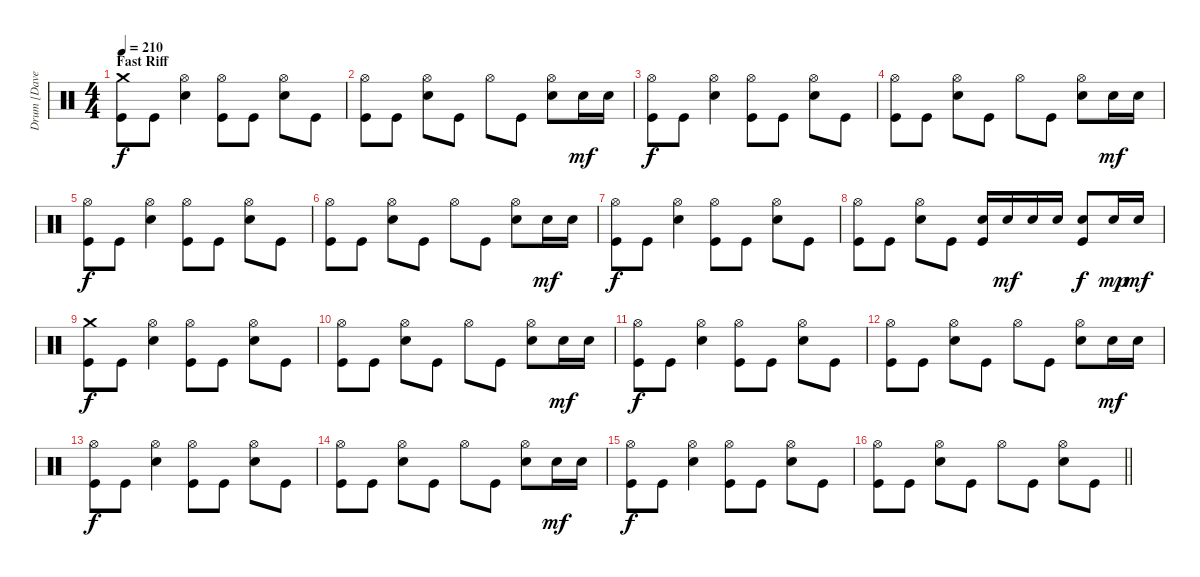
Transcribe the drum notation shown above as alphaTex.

\track ("Drum [Dave Grohl]" "Drum [Dave") {instrument percussion bank 84}
\staff {score}
\articulation defaults
\ts (4 4)
\section ("" "Fast Riff")
\tempo 210
\clef neutral
\ks c
("Crash medium (hit)" "Kick (hit)").8{dy f} "Kick (hit)".8 ("Hi-Hat (open)" "Electric Snare (hit)").4 ("Hi-Hat (open)" "Kick (hit)").8 "Kick (hit)".8 ("Hi-Hat (open)" "Electric Snare (hit)").8 "Kick (hit)".8 |
("Hi-Hat (open)" "Kick (hit)").8 "Kick (hit)".8 ("Hi-Hat (open)" "Electric Snare (hit)").8 "Kick (hit)".8 "Hi-Hat (open)".8 "Kick (hit)".8 ("Hi-Hat (open)" "Electric Snare (hit)").8 "Electric Snare (hit)".16{dy mf} "Electric Snare (hit)".16 |
("Hi-Hat (open)" "Kick (hit)").8{dy f} "Kick (hit)".8 ("Hi-Hat (open)" "Electric Snare (hit)").4 ("Hi-Hat (open)" "Kick (hit)").8 "Kick (hit)".8 ("Hi-Hat (open)" "Electric Snare (hit)").8 "Kick (hit)".8 |
("Hi-Hat (open)" "Kick (hit)").8 "Kick (hit)".8 ("Hi-Hat (open)" "Electric Snare (hit)").8 "Kick (hit)".8 "Hi-Hat (open)".8 "Kick (hit)".8 ("Hi-Hat (open)" "Electric Snare (hit)").8 "Electric Snare (hit)".16{dy mf} "Electric Snare (hit)".16 |
("Hi-Hat (open)" "Kick (hit)").8{dy f} "Kick (hit)".8 ("Hi-Hat (open)" "Electric Snare (hit)").4 ("Hi-Hat (open)" "Kick (hit)").8 "Kick (hit)".8 ("Hi-Hat (open)" "Electric Snare (hit)").8 "Kick (hit)".8 |
("Hi-Hat (open)" "Kick (hit)").8 "Kick (hit)".8 ("Hi-Hat (open)" "Electric Snare (hit)").8 "Kick (hit)".8 "Hi-Hat (open)".8 "Kick (hit)".8 ("Hi-Hat (open)" "Electric Snare (hit)").8 "Electric Snare (hit)".16{dy mf} "Electric Snare (hit)".16 |
("Hi-Hat (open)" "Kick (hit)").8{dy f} "Kick (hit)".8 ("Hi-Hat (open)" "Electric Snare (hit)").4 ("Hi-Hat (open)" "Kick (hit)").8 "Kick (hit)".8 ("Hi-Hat (open)" "Electric Snare (hit)").8 "Kick (hit)".8 |
("Hi-Hat (open)" "Kick (hit)").8 "Kick (hit)".8 ("Hi-Hat (open)" "Electric Snare (hit)").8 "Kick (hit)".8 ("Electric Snare (hit)" "Kick (hit)").16 "Electric Snare (hit)".16{dy mf} "Electric Snare (hit)".16 "Electric Snare (hit)".16 ("Electric Snare (hit)" "Kick (hit)").8{dy f} "Electric Snare (hit)".16{dy mp} "Electric Snare (hit)".16{dy mf} |
("Crash medium (hit)" "Kick (hit)").8{dy f} "Kick (hit)".8 ("Hi-Hat (open)" "Electric Snare (hit)").4 ("Hi-Hat (open)" "Kick (hit)").8 "Kick (hit)".8 ("Hi-Hat (open)" "Electric Snare (hit)").8 "Kick (hit)".8 |
("Hi-Hat (open)" "Kick (hit)").8 "Kick (hit)".8 ("Hi-Hat (open)" "Electric Snare (hit)").8 "Kick (hit)".8 "Hi-Hat (open)".8 "Kick (hit)".8 ("Hi-Hat (open)" "Electric Snare (hit)").8 "Electric Snare (hit)".16{dy mf} "Electric Snare (hit)".16 |
("Hi-Hat (open)" "Kick (hit)").8{dy f} "Kick (hit)".8 ("Hi-Hat (open)" "Electric Snare (hit)").4 ("Hi-Hat (open)" "Kick (hit)").8 "Kick (hit)".8 ("Hi-Hat (open)" "Electric Snare (hit)").8 "Kick (hit)".8 |
("Hi-Hat (open)" "Kick (hit)").8 "Kick (hit)".8 ("Hi-Hat (open)" "Electric Snare (hit)").8 "Kick (hit)".8 "Hi-Hat (open)".8 "Kick (hit)".8 ("Hi-Hat (open)" "Electric Snare (hit)").8 "Electric Snare (hit)".16{dy mf} "Electric Snare (hit)".16 |
("Hi-Hat (open)" "Kick (hit)").8{dy f} "Kick (hit)".8 ("Hi-Hat (open)" "Electric Snare (hit)").4 ("Hi-Hat (open)" "Kick (hit)").8 "Kick (hit)".8 ("Hi-Hat (open)" "Electric Snare (hit)").8 "Kick (hit)".8 |
("Hi-Hat (open)" "Kick (hit)").8 "Kick (hit)".8 ("Hi-Hat (open)" "Electric Snare (hit)").8 "Kick (hit)".8 "Hi-Hat (open)".8 "Kick (hit)".8 ("Hi-Hat (open)" "Electric Snare (hit)").8 "Electric Snare (hit)".16{dy mf} "Electric Snare (hit)".16 |
("Hi-Hat (open)" "Kick (hit)").8{dy f} "Kick (hit)".8 ("Hi-Hat (open)" "Electric Snare (hit)").4 ("Hi-Hat (open)" "Kick (hit)").8 "Kick (hit)".8 ("Hi-Hat (open)" "Electric Snare (hit)").8 "Kick (hit)".8 |
\barLineRight lightlight
("Hi-Hat (open)" "Kick (hit)").8 "Kick (hit)".8 ("Hi-Hat (open)" "Electric Snare (hit)").8 "Kick (hit)".8 "Hi-Hat (open)".8 "Kick (hit)".8 ("Hi-Hat (open)" "Electric Snare (hit)").8 "Kick (hit)".8
